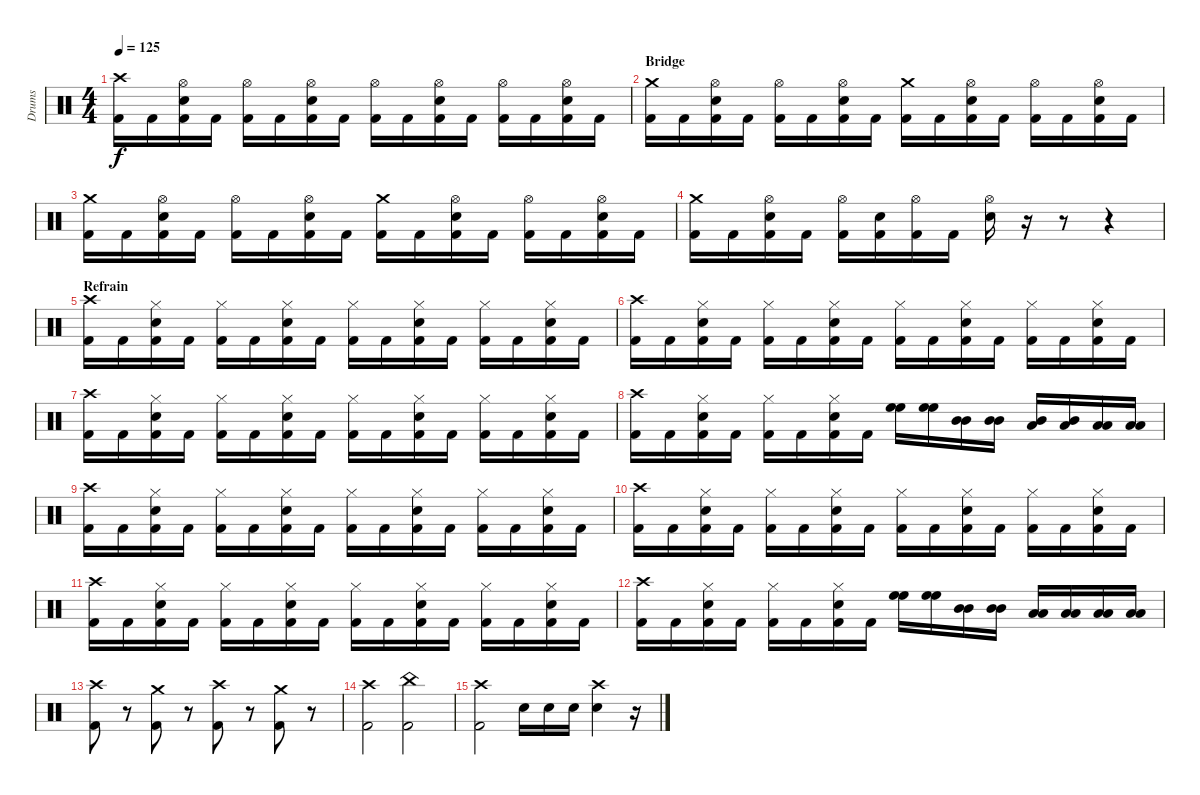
\track ("Drums" "Drums") {instrument percussion}
\staff {score}
\articulation defaults
\ts (4 4)
\tempo 125
\clef neutral
\ks c
("Crash high (hit)" "Kick (hit) 2").16{dy f} "Kick (hit) 2".16 ("Hi-Hat (open)" "Snare (hit) 2" "Kick (hit) 2").16 "Kick (hit) 2".16 ("Hi-Hat (open)" "Kick (hit) 2").16 "Kick (hit) 2".16 ("Hi-Hat (open)" "Snare (hit) 2" "Kick (hit) 2").16 "Kick (hit) 2".16 ("Hi-Hat (open)" "Kick (hit) 2").16 "Kick (hit) 2".16 ("Hi-Hat (open)" "Snare (hit) 2" "Kick (hit) 2").16 "Kick (hit) 2".16 ("Hi-Hat (open)" "Kick (hit) 2").16 "Kick (hit) 2".16 ("Hi-Hat (open)" "Snare (hit) 2" "Kick (hit) 2").16 "Kick (hit) 2".16 |
\section ("" "Bridge")
("Crash medium (hit)" "Kick (hit) 2").16 "Kick (hit) 2".16 ("Hi-Hat (open)" "Snare (hit) 2" "Kick (hit) 2").16 "Kick (hit) 2".16 ("Hi-Hat (open)" "Kick (hit) 2").16 "Kick (hit) 2".16 ("Hi-Hat (open)" "Snare (hit) 2" "Kick (hit) 2").16 "Kick (hit) 2".16 ("Crash medium (hit)" "Kick (hit) 2").16 "Kick (hit) 2".16 ("Hi-Hat (open)" "Snare (hit) 2" "Kick (hit) 2").16 "Kick (hit) 2".16 ("Hi-Hat (open)" "Kick (hit) 2").16 "Kick (hit) 2".16 ("Hi-Hat (open)" "Snare (hit) 2" "Kick (hit) 2").16 "Kick (hit) 2".16 |
("Crash medium (hit)" "Kick (hit) 2").16 "Kick (hit) 2".16 ("Hi-Hat (open)" "Snare (hit) 2" "Kick (hit) 2").16 "Kick (hit) 2".16 ("Hi-Hat (open)" "Kick (hit) 2").16 "Kick (hit) 2".16 ("Hi-Hat (open)" "Snare (hit) 2" "Kick (hit) 2").16 "Kick (hit) 2".16 ("Crash medium (hit)" "Kick (hit) 2").16 "Kick (hit) 2".16 ("Hi-Hat (open)" "Snare (hit) 2" "Kick (hit) 2").16 "Kick (hit) 2".16 ("Hi-Hat (open)" "Kick (hit) 2").16 "Kick (hit) 2".16 ("Hi-Hat (open)" "Snare (hit) 2" "Kick (hit) 2").16 "Kick (hit) 2".16 |
("Crash medium (hit)" "Kick (hit) 2").16 "Kick (hit) 2".16 ("Hi-Hat (open)" "Snare (hit) 2" "Kick (hit) 2").16 "Kick (hit) 2".16 ("Hi-Hat (open)" "Kick (hit) 2").16 ("Snare (hit) 2" "Kick (hit) 2").16 ("Hi-Hat (open)" "Kick (hit) 2").16 "Kick (hit) 2".16 ("Hi-Hat (open)" "Snare (hit) 2").16 r.16 r.8 r.4 |
\section ("" "Refrain")
("Crash high (hit)" "Kick (hit) 2").16 "Kick (hit) 2".16 ("Hi-Hat (closed)" "Snare (hit) 2" "Kick (hit) 2").16 "Kick (hit) 2".16 ("Hi-Hat (closed)" "Kick (hit) 2").16 "Kick (hit) 2".16 ("Hi-Hat (closed)" "Snare (hit) 2" "Kick (hit) 2").16 "Kick (hit) 2".16 ("Hi-Hat (closed)" "Kick (hit) 2").16 "Kick (hit) 2".16 ("Hi-Hat (closed)" "Snare (hit) 2" "Kick (hit) 2").16 "Kick (hit) 2".16 ("Hi-Hat (closed)" "Kick (hit) 2").16 "Kick (hit) 2".16 ("Hi-Hat (closed)" "Snare (hit) 2" "Kick (hit) 2").16 "Kick (hit) 2".16 |
("Crash high (hit)" "Kick (hit) 2").16 "Kick (hit) 2".16 ("Hi-Hat (closed)" "Snare (hit) 2" "Kick (hit) 2").16 "Kick (hit) 2".16 ("Hi-Hat (closed)" "Kick (hit) 2").16 "Kick (hit) 2".16 ("Hi-Hat (closed)" "Snare (hit) 2" "Kick (hit) 2").16 "Kick (hit) 2".16 ("Hi-Hat (closed)" "Kick (hit) 2").16 "Kick (hit) 2".16 ("Hi-Hat (closed)" "Snare (hit) 2" "Kick (hit) 2").16 "Kick (hit) 2".16 ("Hi-Hat (closed)" "Kick (hit) 2").16 "Kick (hit) 2".16 ("Hi-Hat (closed)" "Snare (hit) 2" "Kick (hit) 2").16 "Kick (hit) 2".16 |
("Crash high (hit)" "Kick (hit) 2").16 "Kick (hit) 2".16 ("Hi-Hat (closed)" "Snare (hit) 2" "Kick (hit) 2").16 "Kick (hit) 2".16 ("Hi-Hat (closed)" "Kick (hit) 2").16 "Kick (hit) 2".16 ("Hi-Hat (closed)" "Snare (hit) 2" "Kick (hit) 2").16 "Kick (hit) 2".16 ("Hi-Hat (closed)" "Kick (hit) 2").16 "Kick (hit) 2".16 ("Hi-Hat (closed)" "Snare (hit) 2" "Kick (hit) 2").16 "Kick (hit) 2".16 ("Hi-Hat (closed)" "Kick (hit) 2").16 "Kick (hit) 2".16 ("Hi-Hat (closed)" "Snare (hit) 2" "Kick (hit) 2").16 "Kick (hit) 2".16 |
("Crash high (hit)" "Kick (hit) 2").16 "Kick (hit) 2".16 ("Hi-Hat (closed)" "Snare (hit) 2" "Kick (hit) 2").16 "Kick (hit) 2".16 ("Hi-Hat (closed)" "Kick (hit) 2").16 "Kick (hit) 2".16 ("Hi-Hat (closed)" "Snare (hit) 2" "Kick (hit) 2").16 "Kick (hit) 2".16 ("High Floor Tom (hit)" "High Floor Tom (hit)").16 ("High Floor Tom (hit)" "High Floor Tom (hit)").16 ("Mid Tom (hit)" "Mid Tom (hit)").16 ("Mid Tom (hit)" "Mid Tom (hit)").16 ("Low Tom (hit)" "Mid Tom (hit)").16 ("Low Tom (hit)" "Mid Tom (hit)").16 ("Low Floor Tom (hit)" "Low Floor Tom (hit)").16 ("Low Floor Tom (hit)" "Low Floor Tom (hit)").16 |
("Crash high (hit)" "Kick (hit) 2").16 "Kick (hit) 2".16 ("Hi-Hat (closed)" "Snare (hit) 2" "Kick (hit) 2").16 "Kick (hit) 2".16 ("Hi-Hat (closed)" "Kick (hit) 2").16 "Kick (hit) 2".16 ("Hi-Hat (closed)" "Snare (hit) 2" "Kick (hit) 2").16 "Kick (hit) 2".16 ("Hi-Hat (closed)" "Kick (hit) 2").16 "Kick (hit) 2".16 ("Hi-Hat (closed)" "Snare (hit) 2" "Kick (hit) 2").16 "Kick (hit) 2".16 ("Hi-Hat (closed)" "Kick (hit) 2").16 "Kick (hit) 2".16 ("Hi-Hat (closed)" "Snare (hit) 2" "Kick (hit) 2").16 "Kick (hit) 2".16 |
("Crash high (hit)" "Kick (hit) 2").16 "Kick (hit) 2".16 ("Hi-Hat (closed)" "Snare (hit) 2" "Kick (hit) 2").16 "Kick (hit) 2".16 ("Hi-Hat (closed)" "Kick (hit) 2").16 "Kick (hit) 2".16 ("Hi-Hat (closed)" "Snare (hit) 2" "Kick (hit) 2").16 "Kick (hit) 2".16 ("Hi-Hat (closed)" "Kick (hit) 2").16 "Kick (hit) 2".16 ("Hi-Hat (closed)" "Snare (hit) 2" "Kick (hit) 2").16 "Kick (hit) 2".16 ("Hi-Hat (closed)" "Kick (hit) 2").16 "Kick (hit) 2".16 ("Hi-Hat (closed)" "Snare (hit) 2" "Kick (hit) 2").16 "Kick (hit) 2".16 |
("Crash high (hit)" "Kick (hit) 2").16 "Kick (hit) 2".16 ("Hi-Hat (closed)" "Snare (hit) 2" "Kick (hit) 2").16 "Kick (hit) 2".16 ("Hi-Hat (closed)" "Kick (hit) 2").16 "Kick (hit) 2".16 ("Hi-Hat (closed)" "Snare (hit) 2" "Kick (hit) 2").16 "Kick (hit) 2".16 ("Hi-Hat (closed)" "Kick (hit) 2").16 "Kick (hit) 2".16 ("Hi-Hat (closed)" "Snare (hit) 2" "Kick (hit) 2").16 "Kick (hit) 2".16 ("Hi-Hat (closed)" "Kick (hit) 2").16 "Kick (hit) 2".16 ("Hi-Hat (closed)" "Snare (hit) 2" "Kick (hit) 2").16 "Kick (hit) 2".16 |
("Crash high (hit)" "Kick (hit) 2").16 "Kick (hit) 2".16 ("Hi-Hat (closed)" "Snare (hit) 2" "Kick (hit) 2").16 "Kick (hit) 2".16 ("Hi-Hat (closed)" "Kick (hit) 2").16 "Kick (hit) 2".16 ("Hi-Hat (closed)" "Snare (hit) 2" "Kick (hit) 2").16 "Kick (hit) 2".16 ("High Floor Tom (hit)" "High Floor Tom (hit)").16 ("High Floor Tom (hit)" "High Floor Tom (hit)").16 ("Mid Tom (hit)" "Mid Tom (hit)").16 ("Mid Tom (hit)" "Mid Tom (hit)").16 ("Low Tom (hit)" "Low Tom (hit)").16 ("Low Tom (hit)" "Low Tom (hit)").16 ("Low Floor Tom (hit)" "Low Floor Tom (hit)").16 ("Low Floor Tom (hit)" "Low Floor Tom (hit)").16 |
("Crash high (hit)" "Kick (hit) 2").8 r.8 ("Crash medium (hit)" "Kick (hit) 2").8 r.8 ("Crash high (hit)" "Kick (hit) 2").8 r.8 ("Crash medium (hit)" "Kick (hit) 2").8 r.8 |
("Crash high (hit)" "Kick (hit) 2").2 ("China (hit)" "Kick (hit) 2").2 |
("Crash high (hit)" "Kick (hit) 2").2 "Snare (hit) 2".16 "Snare (hit) 2".16 "Snare (hit) 2".16 ("Crash high (hit)" "Snare (hit) 2").4 r.16
